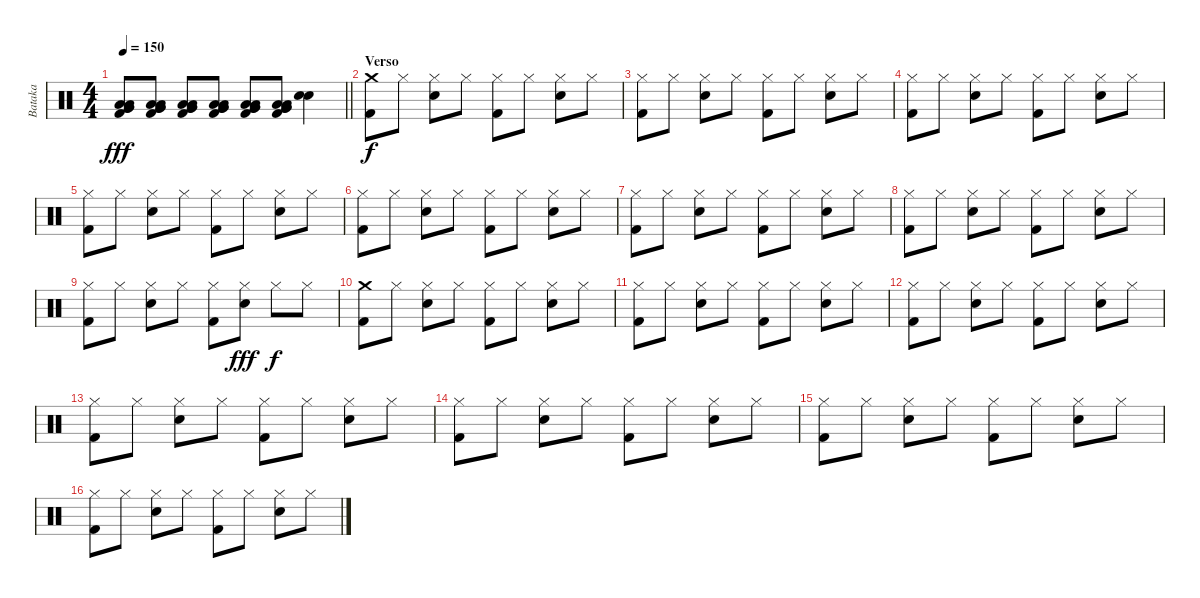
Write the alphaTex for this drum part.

\track ("Bataka" "Bataka") {instrument percussion}
\staff {score}
\articulation defaults
\ts (4 4)
\tempo 150
\clef neutral
\barLineRight lightlight
\ks c
("Very Low Tom (hit)" "Very Low Tom (hit)" "Low Tom (hit)" "Low Tom (hit)" "Kick (hit) 2").8{dy fff} ("Very Low Tom (hit)" "Very Low Tom (hit)" "Low Tom (hit)" "Low Tom (hit)" "Kick (hit) 2").8 ("Very Low Tom (hit)" "Very Low Tom (hit)" "Low Tom (hit)" "Low Tom (hit)" "Kick (hit) 2").8 ("Very Low Tom (hit)" "Very Low Tom (hit)" "Low Tom (hit)" "Low Tom (hit)" "Kick (hit) 2").8 ("Very Low Tom (hit)" "Very Low Tom (hit)" "Low Tom (hit)" "Low Tom (hit)" "Kick (hit) 2").8 ("Very Low Tom (hit)" "Very Low Tom (hit)" "Low Tom (hit)" "Low Tom (hit)" "Kick (hit) 2").8 ("Snare (hit) 2" "Snare (hit) 2").4 |
\section ("" "Verso")
("Crash medium (hit)" "Kick (hit) 2").8{dy f} "Hi-Hat (closed)".8 ("Hi-Hat (closed)" "Snare (hit) 2").8 "Hi-Hat (closed)".8 ("Hi-Hat (closed)" "Kick (hit) 2").8 "Hi-Hat (closed)".8 ("Hi-Hat (closed)" "Snare (hit) 2").8 "Hi-Hat (closed)".8 |
("Hi-Hat (closed)" "Kick (hit) 2").8 "Hi-Hat (closed)".8 ("Hi-Hat (closed)" "Snare (hit) 2").8 "Hi-Hat (closed)".8 ("Hi-Hat (closed)" "Kick (hit) 2").8 "Hi-Hat (closed)".8 ("Hi-Hat (closed)" "Snare (hit) 2").8 "Hi-Hat (closed)".8 |
("Hi-Hat (closed)" "Kick (hit) 2").8 "Hi-Hat (closed)".8 ("Hi-Hat (closed)" "Snare (hit) 2").8 "Hi-Hat (closed)".8 ("Hi-Hat (closed)" "Kick (hit) 2").8 "Hi-Hat (closed)".8 ("Hi-Hat (closed)" "Snare (hit) 2").8 "Hi-Hat (closed)".8 |
("Hi-Hat (closed)" "Kick (hit) 2").8 "Hi-Hat (closed)".8 ("Hi-Hat (closed)" "Snare (hit) 2").8 "Hi-Hat (closed)".8 ("Hi-Hat (closed)" "Kick (hit) 2").8 "Hi-Hat (closed)".8 ("Hi-Hat (closed)" "Snare (hit) 2").8 "Hi-Hat (closed)".8 |
("Hi-Hat (closed)" "Kick (hit) 2").8 "Hi-Hat (closed)".8 ("Hi-Hat (closed)" "Snare (hit) 2").8 "Hi-Hat (closed)".8 ("Hi-Hat (closed)" "Kick (hit) 2").8 "Hi-Hat (closed)".8 ("Hi-Hat (closed)" "Snare (hit) 2").8 "Hi-Hat (closed)".8 |
("Hi-Hat (closed)" "Kick (hit) 2").8 "Hi-Hat (closed)".8 ("Hi-Hat (closed)" "Snare (hit) 2").8 "Hi-Hat (closed)".8 ("Hi-Hat (closed)" "Kick (hit) 2").8 "Hi-Hat (closed)".8 ("Hi-Hat (closed)" "Snare (hit) 2").8 "Hi-Hat (closed)".8 |
("Hi-Hat (closed)" "Kick (hit) 2").8 "Hi-Hat (closed)".8 ("Hi-Hat (closed)" "Snare (hit) 2").8 "Hi-Hat (closed)".8 ("Hi-Hat (closed)" "Kick (hit) 2").8 "Hi-Hat (closed)".8 ("Hi-Hat (closed)" "Snare (hit) 2").8 "Hi-Hat (closed)".8 |
("Hi-Hat (closed)" "Kick (hit) 2").8 "Hi-Hat (closed)".8 ("Hi-Hat (closed)" "Snare (hit) 2").8 "Hi-Hat (closed)".8 ("Hi-Hat (closed)" "Kick (hit) 2").8 ("Hi-Hat (closed)" "Snare (hit) 2").8{dy fff} "Hi-Hat (closed)".8{dy f} "Hi-Hat (closed)".8 |
("Crash medium (hit)" "Kick (hit) 2").8 "Hi-Hat (closed)".8 ("Hi-Hat (closed)" "Snare (hit) 2").8 "Hi-Hat (closed)".8 ("Hi-Hat (closed)" "Kick (hit) 2").8 "Hi-Hat (closed)".8 ("Hi-Hat (closed)" "Snare (hit) 2").8 "Hi-Hat (closed)".8 |
("Hi-Hat (closed)" "Kick (hit) 2").8 "Hi-Hat (closed)".8 ("Hi-Hat (closed)" "Snare (hit) 2").8 "Hi-Hat (closed)".8 ("Hi-Hat (closed)" "Kick (hit) 2").8 "Hi-Hat (closed)".8 ("Hi-Hat (closed)" "Snare (hit) 2").8 "Hi-Hat (closed)".8 |
("Hi-Hat (closed)" "Kick (hit) 2").8 "Hi-Hat (closed)".8 ("Hi-Hat (closed)" "Snare (hit) 2").8 "Hi-Hat (closed)".8 ("Hi-Hat (closed)" "Kick (hit) 2").8 "Hi-Hat (closed)".8 ("Hi-Hat (closed)" "Snare (hit) 2").8 "Hi-Hat (closed)".8 |
("Hi-Hat (closed)" "Kick (hit) 2").8 "Hi-Hat (closed)".8 ("Hi-Hat (closed)" "Snare (hit) 2").8 "Hi-Hat (closed)".8 ("Hi-Hat (closed)" "Kick (hit) 2").8 "Hi-Hat (closed)".8 ("Hi-Hat (closed)" "Snare (hit) 2").8 "Hi-Hat (closed)".8 |
("Hi-Hat (closed)" "Kick (hit) 2").8 "Hi-Hat (closed)".8 ("Hi-Hat (closed)" "Snare (hit) 2").8 "Hi-Hat (closed)".8 ("Hi-Hat (closed)" "Kick (hit) 2").8 "Hi-Hat (closed)".8 ("Hi-Hat (closed)" "Snare (hit) 2").8 "Hi-Hat (closed)".8 |
("Hi-Hat (closed)" "Kick (hit) 2").8 "Hi-Hat (closed)".8 ("Hi-Hat (closed)" "Snare (hit) 2").8 "Hi-Hat (closed)".8 ("Hi-Hat (closed)" "Kick (hit) 2").8 "Hi-Hat (closed)".8 ("Hi-Hat (closed)" "Snare (hit) 2").8 "Hi-Hat (closed)".8 |
("Hi-Hat (closed)" "Kick (hit) 2").8 "Hi-Hat (closed)".8 ("Hi-Hat (closed)" "Snare (hit) 2").8 "Hi-Hat (closed)".8 ("Hi-Hat (closed)" "Kick (hit) 2").8 "Hi-Hat (closed)".8 ("Hi-Hat (closed)" "Snare (hit) 2").8 "Hi-Hat (closed)".8
